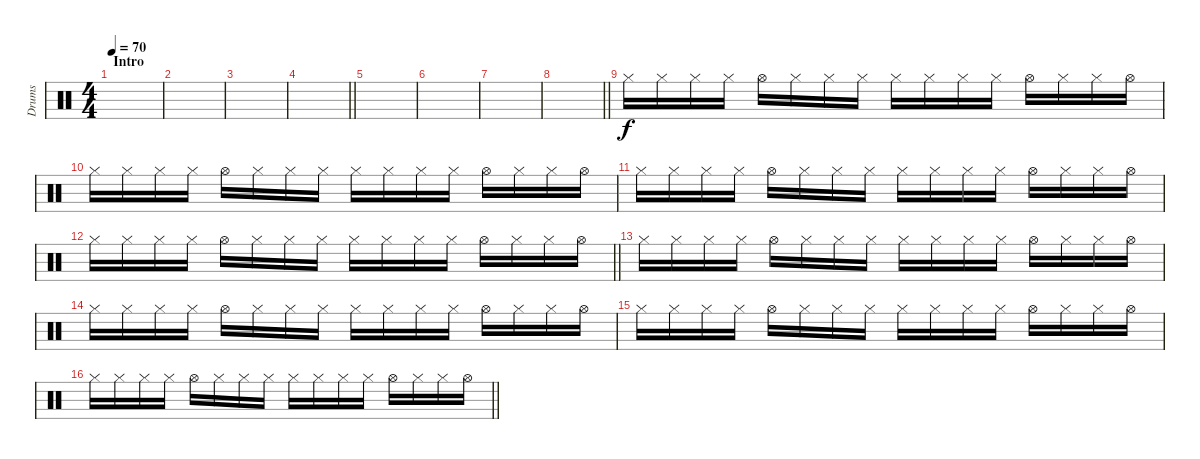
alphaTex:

\track ("Drums" "Drums") {instrument percussion}
\staff {score}
\articulation defaults
\ts (4 4)
\section ("" "Intro")
\tempo 70
\clef neutral
\ks c
|
|
|
\barLineRight lightlight
|
|
|
|
\barLineRight lightlight
|
\section ("" "")
"Hi-Hat (closed)".16 "Hi-Hat (closed)".16 "Hi-Hat (closed)".16 "Hi-Hat (closed)".16 "Hi-Hat (open)".16 "Hi-Hat (closed)".16 "Hi-Hat (closed)".16 "Hi-Hat (closed)".16 "Hi-Hat (closed)".16 "Hi-Hat (closed)".16 "Hi-Hat (closed)".16 "Hi-Hat (closed)".16 "Hi-Hat (open)".16 "Hi-Hat (closed)".16 "Hi-Hat (closed)".16 "Hi-Hat (open)".16 |
"Hi-Hat (closed)".16 "Hi-Hat (closed)".16 "Hi-Hat (closed)".16 "Hi-Hat (closed)".16 "Hi-Hat (open)".16 "Hi-Hat (closed)".16 "Hi-Hat (closed)".16 "Hi-Hat (closed)".16 "Hi-Hat (closed)".16 "Hi-Hat (closed)".16 "Hi-Hat (closed)".16 "Hi-Hat (closed)".16 "Hi-Hat (open)".16 "Hi-Hat (closed)".16 "Hi-Hat (closed)".16 "Hi-Hat (open)".16 |
"Hi-Hat (closed)".16 "Hi-Hat (closed)".16 "Hi-Hat (closed)".16 "Hi-Hat (closed)".16 "Hi-Hat (open)".16 "Hi-Hat (closed)".16 "Hi-Hat (closed)".16 "Hi-Hat (closed)".16 "Hi-Hat (closed)".16 "Hi-Hat (closed)".16 "Hi-Hat (closed)".16 "Hi-Hat (closed)".16 "Hi-Hat (open)".16 "Hi-Hat (closed)".16 "Hi-Hat (closed)".16 "Hi-Hat (open)".16 |
\barLineRight lightlight "Hi-Hat (closed)".16 "Hi-Hat (closed)".16 "Hi-Hat (closed)".16 "Hi-Hat (closed)".16 "Hi-Hat (open)".16 "Hi-Hat (closed)".16 "Hi-Hat (closed)".16 "Hi-Hat (closed)".16 "Hi-Hat (closed)".16 "Hi-Hat (closed)".16 "Hi-Hat (closed)".16 "Hi-Hat (closed)".16 "Hi-Hat (open)".16 "Hi-Hat (closed)".16 "Hi-Hat (closed)".16 "Hi-Hat (open)".16
|
"Hi-Hat (closed)".16 "Hi-Hat (closed)".16 "Hi-Hat (closed)".16 "Hi-Hat (closed)".16 "Hi-Hat (open)".16 "Hi-Hat (closed)".16 "Hi-Hat (closed)".16 "Hi-Hat (closed)".16 "Hi-Hat (closed)".16 "Hi-Hat (closed)".16 "Hi-Hat (closed)".16 "Hi-Hat (closed)".16 "Hi-Hat (open)".16 "Hi-Hat (closed)".16 "Hi-Hat (closed)".16 "Hi-Hat (open)".16 |
"Hi-Hat (closed)".16 "Hi-Hat (closed)".16 "Hi-Hat (closed)".16 "Hi-Hat (closed)".16 "Hi-Hat (open)".16 "Hi-Hat (closed)".16 "Hi-Hat (closed)".16 "Hi-Hat (closed)".16 "Hi-Hat (closed)".16 "Hi-Hat (closed)".16 "Hi-Hat (closed)".16 "Hi-Hat (closed)".16 "Hi-Hat (open)".16 "Hi-Hat (closed)".16 "Hi-Hat (closed)".16 "Hi-Hat (open)".16 |
"Hi-Hat (closed)".16 "Hi-Hat (closed)".16 "Hi-Hat (closed)".16 "Hi-Hat (closed)".16 "Hi-Hat (open)".16 "Hi-Hat (closed)".16 "Hi-Hat (closed)".16 "Hi-Hat (closed)".16 "Hi-Hat (closed)".16 "Hi-Hat (closed)".16 "Hi-Hat (closed)".16 "Hi-Hat (closed)".16 "Hi-Hat (open)".16 "Hi-Hat (closed)".16 "Hi-Hat (closed)".16 "Hi-Hat (open)".16 |
\barLineRight lightlight "Hi-Hat (closed)".16 "Hi-Hat (closed)".16 "Hi-Hat (closed)".16 "Hi-Hat (closed)".16 "Hi-Hat (open)".16 "Hi-Hat (closed)".16 "Hi-Hat (closed)".16 "Hi-Hat (closed)".16 "Hi-Hat (closed)".16 "Hi-Hat (closed)".16 "Hi-Hat (closed)".16 "Hi-Hat (closed)".16 "Hi-Hat (open)".16 "Hi-Hat (closed)".16 "Hi-Hat (closed)".16 "Hi-Hat (open)".16
